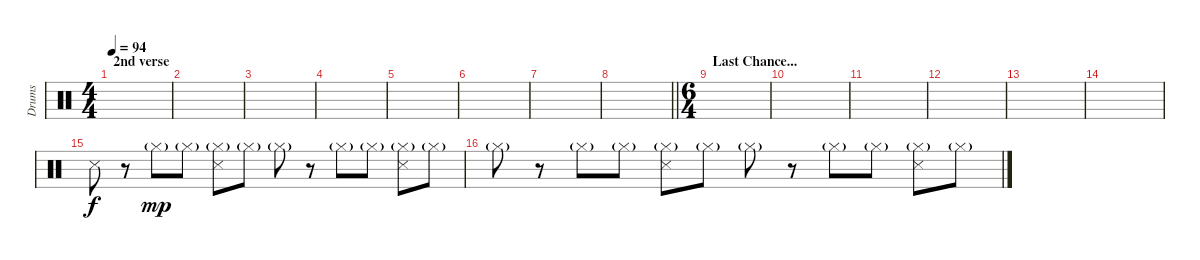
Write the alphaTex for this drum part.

\track ("Drums" "Drums") {instrument percussion}
\staff {score}
\articulation defaults
\ts (4 4)
\section ("" "2nd verse")
\tempo 94
\clef neutral
\ks c
|
|
|
|
|
|
|
\barLineRight lightlight
|
\ts (6 4)
\section ("" "Last Chance...")
|
|
|
|
|
|
"Snare (side stick) 3".8 r.8 "Hi-Hat (closed)"{g}.8{dy mp} "Hi-Hat (closed)"{g}.8 ("Hi-Hat (closed)"{g} "Snare (side stick) 3").8 "Hi-Hat (closed)"{g}.8 "Hi-Hat (closed)"{g}.8 r.8 "Hi-Hat (closed)"{g}.8 "Hi-Hat (closed)"{g}.8 ("Hi-Hat (closed)"{g} "Snare (side stick) 3").8 "Hi-Hat (closed)"{g}.8 |
"Hi-Hat (closed)"{g}.8 r.8 "Hi-Hat (closed)"{g}.8 "Hi-Hat (closed)"{g}.8 ("Hi-Hat (closed)"{g} "Snare (side stick) 3").8 "Hi-Hat (closed)"{g}.8 "Hi-Hat (closed)"{g}.8 r.8 "Hi-Hat (closed)"{g}.8 "Hi-Hat (closed)"{g}.8 ("Hi-Hat (closed)"{g} "Snare (side stick) 3").8 "Hi-Hat (closed)"{g}.8
